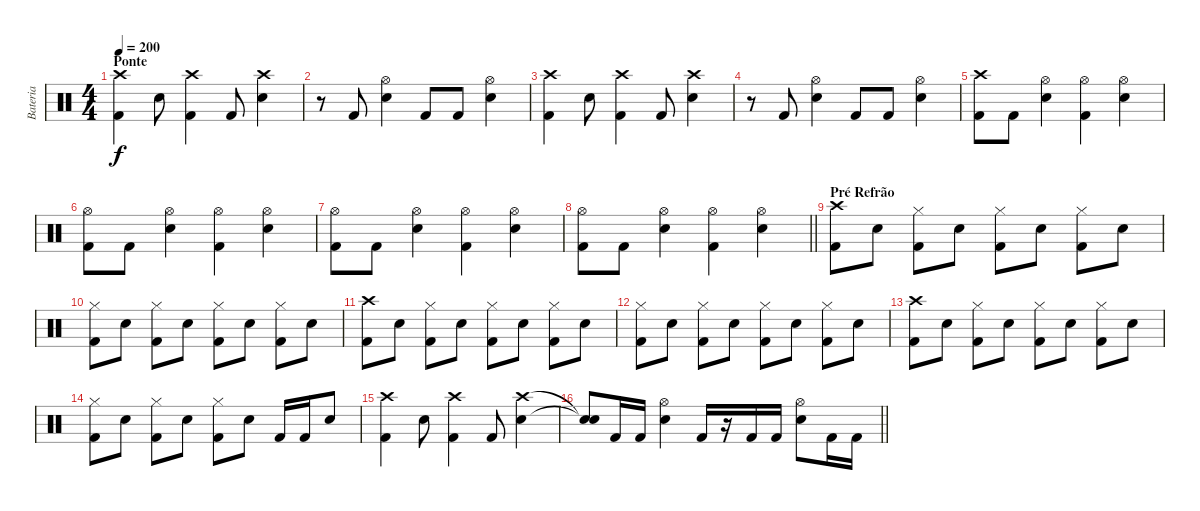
\track ("Bateria" "Bateria") {instrument percussion}
\staff {score}
\articulation defaults
\ts (4 4)
\section ("" "Ponte")
\tempo 200
\clef neutral
\ks c
("Crash high (hit)" "Kick (hit) 2").4{dy f} "Electric Snare (hit)".8 ("Crash high (hit)" "Kick (hit) 2").4 "Kick (hit) 2".8 ("Crash high (hit)" "Electric Snare (hit)").4 |
r.8 "Kick (hit) 2".8 ("Hi-Hat (open)" "Electric Snare (hit)").4 "Kick (hit) 2".8 "Kick (hit) 2".8 ("Hi-Hat (open)" "Electric Snare (hit)").4 |
("Crash high (hit)" "Kick (hit) 2").4 "Electric Snare (hit)".8 ("Crash high (hit)" "Kick (hit) 2").4 "Kick (hit) 2".8 ("Crash high (hit)" "Electric Snare (hit)").4 |
r.8 "Kick (hit) 2".8 ("Hi-Hat (open)" "Electric Snare (hit)").4 "Kick (hit) 2".8 "Kick (hit) 2".8 ("Hi-Hat (open)" "Electric Snare (hit)").4 |
("Crash high (hit)" "Kick (hit) 2").8 "Kick (hit) 2".8 ("Hi-Hat (open)" "Electric Snare (hit)").4 ("Hi-Hat (open)" "Kick (hit) 2").4 ("Hi-Hat (open)" "Electric Snare (hit)").4 |
("Hi-Hat (open)" "Kick (hit) 2").8 "Kick (hit) 2".8 ("Hi-Hat (open)" "Electric Snare (hit)").4 ("Hi-Hat (open)" "Kick (hit) 2").4 ("Hi-Hat (open)" "Electric Snare (hit)").4 |
("Hi-Hat (open)" "Kick (hit) 2").8 "Kick (hit) 2".8 ("Hi-Hat (open)" "Electric Snare (hit)").4 ("Hi-Hat (open)" "Kick (hit) 2").4 ("Hi-Hat (open)" "Electric Snare (hit)").4 |
\barLineRight lightlight
("Hi-Hat (open)" "Kick (hit) 2").8 "Kick (hit) 2".8 ("Hi-Hat (open)" "Electric Snare (hit)").4 ("Hi-Hat (open)" "Kick (hit) 2").4 ("Hi-Hat (open)" "Electric Snare (hit)").4 |
\section ("" "Pré Refrão")
("Crash high (hit)" "Kick (hit) 2").8 "Electric Snare (hit)".8 ("Hi-Hat (closed)" "Kick (hit) 2").8 "Electric Snare (hit)".8 ("Hi-Hat (closed)" "Kick (hit) 2").8 "Electric Snare (hit)".8 ("Hi-Hat (closed)" "Kick (hit) 2").8 "Electric Snare (hit)".8 |
("Hi-Hat (closed)" "Kick (hit) 2").8 "Electric Snare (hit)".8 ("Hi-Hat (closed)" "Kick (hit) 2").8 "Electric Snare (hit)".8 ("Hi-Hat (closed)" "Kick (hit) 2").8 "Electric Snare (hit)".8 ("Hi-Hat (closed)" "Kick (hit) 2").8 "Electric Snare (hit)".8 |
("Crash high (hit)" "Kick (hit) 2").8 "Electric Snare (hit)".8 ("Hi-Hat (closed)" "Kick (hit) 2").8 "Electric Snare (hit)".8 ("Hi-Hat (closed)" "Kick (hit) 2").8 "Electric Snare (hit)".8 ("Hi-Hat (closed)" "Kick (hit) 2").8 "Electric Snare (hit)".8 |
("Hi-Hat (closed)" "Kick (hit) 2").8 "Electric Snare (hit)".8 ("Hi-Hat (closed)" "Kick (hit) 2").8 "Electric Snare (hit)".8 ("Hi-Hat (closed)" "Kick (hit) 2").8 "Electric Snare (hit)".8 ("Hi-Hat (closed)" "Kick (hit) 2").8 "Electric Snare (hit)".8 |
("Crash high (hit)" "Kick (hit) 2").8 "Electric Snare (hit)".8 ("Hi-Hat (closed)" "Kick (hit) 2").8 "Electric Snare (hit)".8 ("Hi-Hat (closed)" "Kick (hit) 2").8 "Electric Snare (hit)".8 ("Hi-Hat (closed)" "Kick (hit) 2").8 "Electric Snare (hit)".8 |
("Hi-Hat (closed)" "Kick (hit) 2").8 "Electric Snare (hit)".8 ("Hi-Hat (closed)" "Kick (hit) 2").8 "Electric Snare (hit)".8 ("Hi-Hat (closed)" "Kick (hit) 2").8 "Electric Snare (hit)".8 "Kick (hit) 2".16 "Kick (hit) 2".16 "Electric Snare (hit)".8 |
("Crash high (hit)" "Kick (hit) 2").4 "Electric Snare (hit)".8 ("Crash high (hit)" "Kick (hit) 2").4 "Kick (hit) 2".8 ("Crash high (hit)" "Electric Snare (hit)").4 |
\barLineRight lightlight
("Snare (hit)"{t} "Snare (hit)"{t}).8 "Kick (hit) 2".16 "Kick (hit) 2".16 ("Hi-Hat (open)" "Electric Snare (hit)").4 "Kick (hit) 2".16 r.16 "Kick (hit) 2".16 "Kick (hit) 2".16 ("Hi-Hat (open)" "Electric Snare (hit)").8 "Kick (hit) 2".16 "Kick (hit) 2".16
